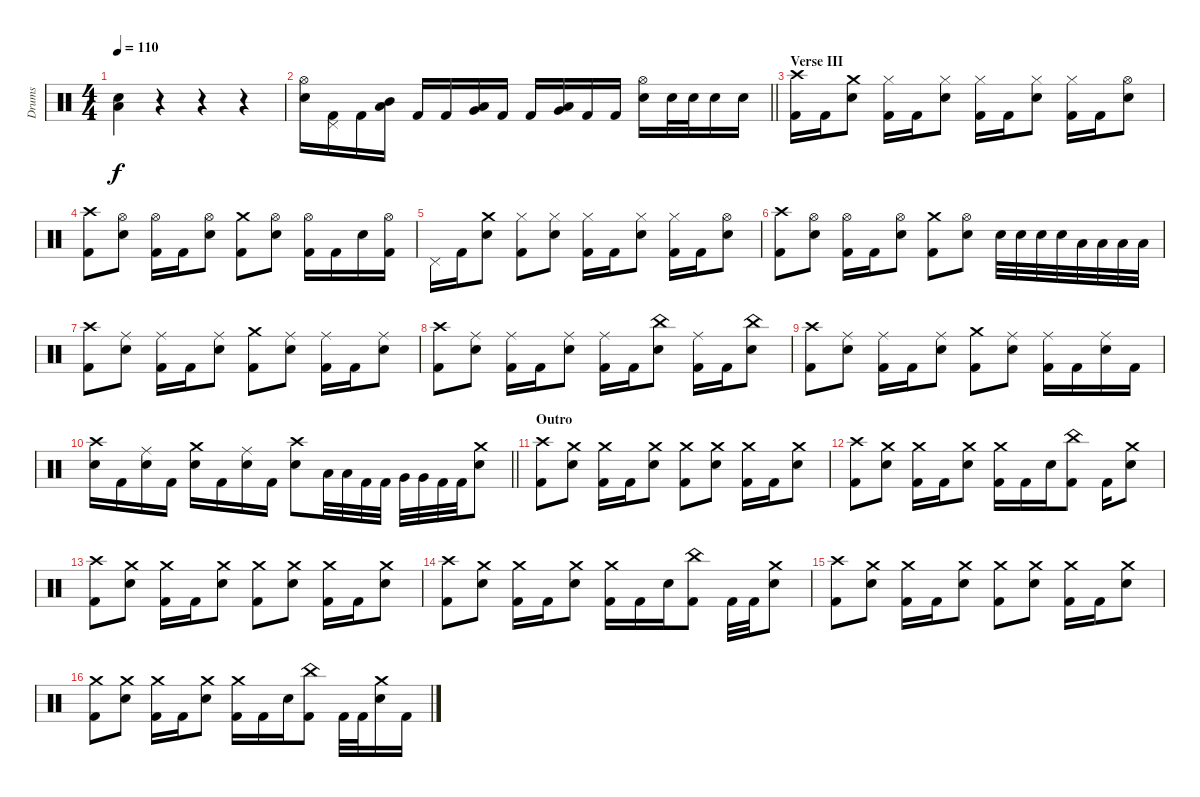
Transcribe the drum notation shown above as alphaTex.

\track ("Drums" "Drums") {instrument percussion}
\staff {score}
\articulation defaults
\ts (4 4)
\tempo 110
\clef neutral
\ks c
("Low Floor Tom (hit)" "Electric Snare (hit)").4{dy f} r.4 r.4 r.4 |
\barLineRight lightlight
("Hi-Hat (open)" "Electric Snare (hit)").16 ("Pedal Hi-Hat (hit)" "Kick (hit) 2").16 "Kick (hit) 2".16 ("Mid Tom (hit)" "Low Tom (hit)").16 "Kick (hit) 2".16 "Kick (hit) 2".16 ("Low Tom (hit)" "Very Low Tom (hit)").16 "Kick (hit) 2".16 "Kick (hit) 2".16 ("Very Low Tom (hit)" "Low Floor Tom (hit)").16 "Kick (hit) 2".16 "Kick (hit) 2".16 ("Hi-Hat (open)" "Electric Snare (hit)").16 "Electric Snare (hit)".32 "Electric Snare (hit)".32 "Electric Snare (hit)".16 "Electric Snare (hit)".16 |
\section ("" "Verse III")
("Crash high (hit)" "Kick (hit) 2").16 "Kick (hit) 2".16 ("Crash medium (hit)" "Electric Snare (hit)").8 ("Hi-Hat (closed)" "Kick (hit) 2").16 "Kick (hit) 2".16 ("Hi-Hat (closed)" "Electric Snare (hit)").8 ("Hi-Hat (closed)" "Kick (hit) 2").16 "Kick (hit) 2".16 ("Hi-Hat (closed)" "Electric Snare (hit)").8 ("Hi-Hat (closed)" "Kick (hit) 2").16 "Kick (hit) 2".16 ("Hi-Hat (open)" "Electric Snare (hit)").8 |
("Crash high (hit)" "Kick (hit) 2").8 ("Hi-Hat (open)" "Electric Snare (hit)").8 ("Hi-Hat (open)" "Kick (hit) 2").16 "Kick (hit) 2".16 ("Hi-Hat (open)" "Electric Snare (hit)").8 ("Crash medium (hit)" "Kick (hit) 2").8 ("Hi-Hat (open)" "Electric Snare (hit)").8 ("Hi-Hat (open)" "Kick (hit) 2").16 "Kick (hit) 2".16 "Electric Snare (hit)".16 ("Hi-Hat (open)" "Kick (hit) 2").16 |
"Pedal Hi-Hat (hit)".16 "Kick (hit) 2".16 ("Crash medium (hit)" "Electric Snare (hit)").8 ("Hi-Hat (closed)" "Kick (hit) 2").8 ("Hi-Hat (closed)" "Electric Snare (hit)").8 ("Hi-Hat (closed)" "Kick (hit) 2").16 "Kick (hit) 2".16 ("Hi-Hat (closed)" "Electric Snare (hit)").8 ("Hi-Hat (closed)" "Kick (hit) 2").16 "Kick (hit) 2".16 ("Hi-Hat (open)" "Electric Snare (hit)").8 |
("Crash high (hit)" "Kick (hit) 2").8 ("Hi-Hat (open)" "Electric Snare (hit)").8 ("Hi-Hat (open)" "Kick (hit) 2").16 "Kick (hit) 2".16 ("Hi-Hat (open)" "Electric Snare (hit)").8 ("Crash medium (hit)" "Kick (hit) 2").8 ("Hi-Hat (open)" "Electric Snare (hit)").8 "Electric Snare (hit)".32 "Electric Snare (hit)".32 "Electric Snare (hit)".32 "Electric Snare (hit)".32 "Low Tom (hit)".32 "Low Tom (hit)".32 "Low Tom (hit)".32 "Low Tom (hit)".32 |
("Crash high (hit)" "Kick (hit) 2").8 ("Ride (middle)" "Electric Snare (hit)").8 ("Ride (middle)" "Kick (hit) 2").16 "Kick (hit) 2".16 ("Ride (middle)" "Electric Snare (hit)").8 ("Crash medium (hit)" "Kick (hit) 2").8 ("Ride (middle)" "Electric Snare (hit)").8 ("Ride (middle)" "Kick (hit) 2").16 "Kick (hit) 2".16 ("Ride (middle)" "Electric Snare (hit)").8 |
("Crash high (hit)" "Kick (hit) 2").8 ("Ride (middle)" "Electric Snare (hit)").8 ("Ride (middle)" "Kick (hit) 2").16 "Kick (hit) 2".16 ("Ride (middle)" "Electric Snare (hit)").8 ("Ride (middle)" "Kick (hit) 2").16 "Kick (hit) 2".16 ("China (hit)" "Electric Snare (hit)").8 ("Ride (middle)" "Kick (hit) 2").16 "Kick (hit) 2".16 ("China (hit)" "Electric Snare (hit)").8 |
("Crash high (hit)" "Kick (hit) 2").8 ("Ride (middle)" "Electric Snare (hit)").8 ("Ride (middle)" "Kick (hit) 2").16 "Kick (hit) 2".16 ("Ride (middle)" "Electric Snare (hit)").8 ("Crash medium (hit)" "Kick (hit) 2").8 ("Ride (middle)" "Electric Snare (hit)").8 ("Ride (middle)" "Kick (hit) 2").16 "Kick (hit) 2".16 ("Ride (middle)" "Electric Snare (hit)").16 "Kick (hit) 2".16 |
\barLineRight lightlight
("Crash high (hit)" "Electric Snare (hit)").16 "Kick (hit) 2".16 ("Ride (middle)" "Electric Snare (hit)").16 "Kick (hit) 2".16 ("Crash medium (hit)" "Electric Snare (hit)").16 "Kick (hit) 2".16 ("Ride (middle)" "Electric Snare (hit)").16 "Kick (hit) 2".16 ("Crash high (hit)" "Electric Snare (hit)").8 "Low Tom (hit)".32 "Low Tom (hit)".32 "Kick (hit) 2".32 "Kick (hit) 2".32 "Very Low Tom (hit)".32 "Very Low Tom (hit)".32 "Kick (hit) 2".32 "Kick (hit) 2".32 ("Crash medium (hit)" "Electric Snare (hit)").8 |
\section ("" "Outro")
("Crash high (hit)" "Kick (hit) 2").8 ("Crash medium (hit)" "Electric Snare (hit)").8 ("Crash medium (hit)" "Kick (hit) 2").16 "Kick (hit) 2".16 ("Crash medium (hit)" "Electric Snare (hit)").8 ("Crash medium (hit)" "Kick (hit) 2").8 ("Crash medium (hit)" "Electric Snare (hit)").8 ("Crash medium (hit)" "Kick (hit) 2").16 "Kick (hit) 2".16 ("Crash medium (hit)" "Electric Snare (hit)").8 |
("Crash high (hit)" "Kick (hit) 2").8 ("Crash medium (hit)" "Electric Snare (hit)").8 ("Crash medium (hit)" "Kick (hit) 2").16 "Kick (hit) 2".16 ("Crash medium (hit)" "Electric Snare (hit)").8 ("Crash medium (hit)" "Kick (hit) 2").16 "Kick (hit) 2".16 "Electric Snare (hit)".16 ("China (hit)" "Kick (hit) 2").8 "Kick (hit) 2".16 ("Crash medium (hit)" "Electric Snare (hit)").8 |
("Crash high (hit)" "Kick (hit) 2").8 ("Crash medium (hit)" "Electric Snare (hit)").8 ("Crash medium (hit)" "Kick (hit) 2").16 "Kick (hit) 2".16 ("Crash medium (hit)" "Electric Snare (hit)").8 ("Crash medium (hit)" "Kick (hit) 2").8 ("Crash medium (hit)" "Electric Snare (hit)").8 ("Crash medium (hit)" "Kick (hit) 2").16 "Kick (hit) 2".16 ("Crash medium (hit)" "Electric Snare (hit)").8 |
("Crash high (hit)" "Kick (hit) 2").8 ("Crash medium (hit)" "Electric Snare (hit)").8 ("Crash medium (hit)" "Kick (hit) 2").16 "Kick (hit) 2".16 ("Crash medium (hit)" "Electric Snare (hit)").8 ("Crash medium (hit)" "Kick (hit) 2").16 "Kick (hit) 2".16 "Electric Snare (hit)".16 ("China (hit)" "Kick (hit) 2").8 "Kick (hit) 2".32 "Kick (hit) 2".32 ("Crash medium (hit)" "Electric Snare (hit)").8 |
("Crash high (hit)" "Kick (hit) 2").8 ("Crash medium (hit)" "Electric Snare (hit)").8 ("Crash medium (hit)" "Kick (hit) 2").16 "Kick (hit) 2".16 ("Crash medium (hit)" "Electric Snare (hit)").8 ("Crash medium (hit)" "Kick (hit) 2").8 ("Crash medium (hit)" "Electric Snare (hit)").8 ("Crash medium (hit)" "Kick (hit) 2").16 "Kick (hit) 2".16 ("Crash medium (hit)" "Electric Snare (hit)").8 |
("Crash medium (hit)" "Kick (hit) 2").8 ("Crash medium (hit)" "Electric Snare (hit)").8 ("Crash medium (hit)" "Kick (hit) 2").16 "Kick (hit) 2".16 ("Crash medium (hit)" "Electric Snare (hit)").8 ("Crash medium (hit)" "Kick (hit) 2").16 "Kick (hit) 2".16 "Electric Snare (hit)".16 ("China (hit)" "Kick (hit) 2").8 "Kick (hit) 2".32 "Kick (hit) 2".32 ("Crash medium (hit)" "Electric Snare (hit)").16 "Kick (hit) 2".16
